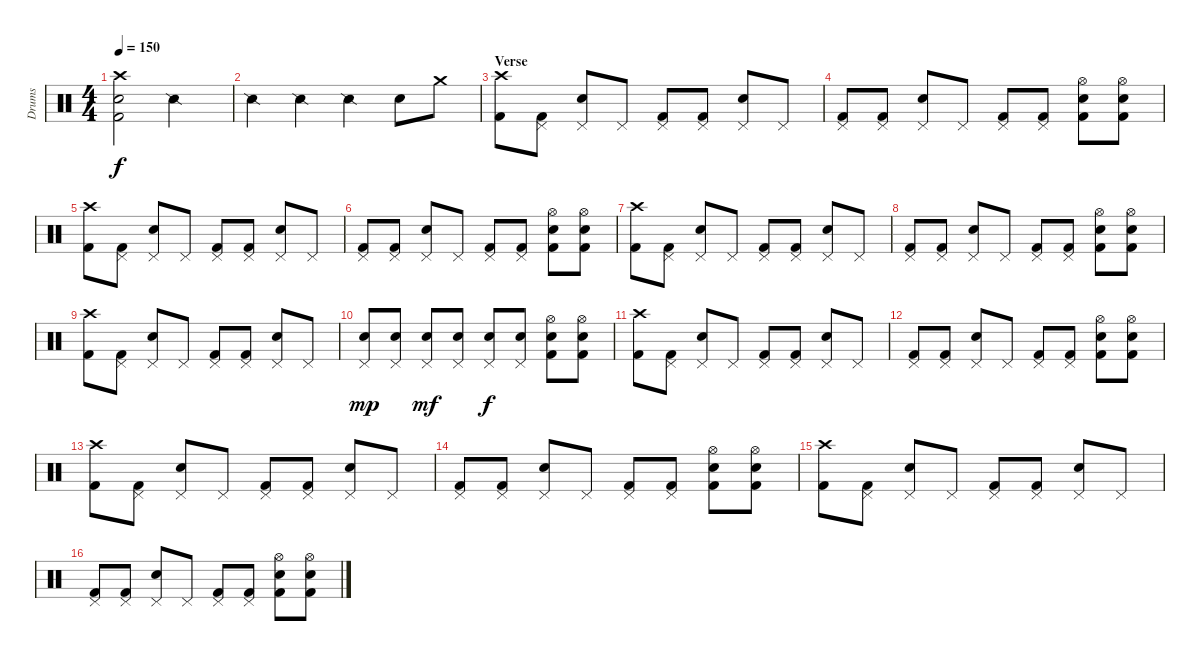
\track ("Drums" "Drums") {instrument percussion}
\staff {score}
\articulation defaults
\ts (4 4)
\tempo 150
\clef neutral
\ks c
("Crash high (hit)" "Snare (hit) 2" "Kick (hit) 2").2{dy f} "Snare (side stick) 2".2 |
"Snare (side stick) 2".4 "Snare (side stick) 2".4 "Snare (side stick) 2".4 "Snare (hit) 2".8 "Crash medium (hit)".8 |
\section ("" "Verse")
("Kick (hit) 2" "Crash high (hit)").8 ("Kick (hit) 2" "Pedal Hi-Hat (hit)").8 ("Snare (hit) 2" "Pedal Hi-Hat (hit)").8 "Pedal Hi-Hat (hit)".8 ("Kick (hit) 2" "Pedal Hi-Hat (hit)").8 ("Kick (hit) 2" "Pedal Hi-Hat (hit)").8 ("Snare (hit) 2" "Pedal Hi-Hat (hit)").8 "Pedal Hi-Hat (hit)".8 |
("Kick (hit) 2" "Pedal Hi-Hat (hit)").8 ("Kick (hit) 2" "Pedal Hi-Hat (hit)").8 ("Snare (hit) 2" "Pedal Hi-Hat (hit)").8 "Pedal Hi-Hat (hit)".8 ("Kick (hit) 2" "Pedal Hi-Hat (hit)").8 ("Kick (hit) 2" "Pedal Hi-Hat (hit)").8 ("Hi-Hat (open)" "Snare (hit) 2" "Kick (hit) 2").8 ("Hi-Hat (open)" "Snare (hit) 2" "Kick (hit) 2").8 |
("Kick (hit) 2" "Crash high (hit)").8 ("Kick (hit) 2" "Pedal Hi-Hat (hit)").8 ("Snare (hit) 2" "Pedal Hi-Hat (hit)").8 "Pedal Hi-Hat (hit)".8 ("Kick (hit) 2" "Pedal Hi-Hat (hit)").8 ("Kick (hit) 2" "Pedal Hi-Hat (hit)").8 ("Snare (hit) 2" "Pedal Hi-Hat (hit)").8 "Pedal Hi-Hat (hit)".8 |
("Kick (hit) 2" "Pedal Hi-Hat (hit)").8 ("Kick (hit) 2" "Pedal Hi-Hat (hit)").8 ("Snare (hit) 2" "Pedal Hi-Hat (hit)").8 "Pedal Hi-Hat (hit)".8 ("Kick (hit) 2" "Pedal Hi-Hat (hit)").8 ("Kick (hit) 2" "Pedal Hi-Hat (hit)").8 ("Hi-Hat (open)" "Snare (hit) 2" "Kick (hit) 2").8 ("Hi-Hat (open)" "Snare (hit) 2" "Kick (hit) 2").8 |
("Kick (hit) 2" "Crash high (hit)").8 ("Kick (hit) 2" "Pedal Hi-Hat (hit)").8 ("Snare (hit) 2" "Pedal Hi-Hat (hit)").8 "Pedal Hi-Hat (hit)".8 ("Kick (hit) 2" "Pedal Hi-Hat (hit)").8 ("Kick (hit) 2" "Pedal Hi-Hat (hit)").8 ("Snare (hit) 2" "Pedal Hi-Hat (hit)").8 "Pedal Hi-Hat (hit)".8 |
("Kick (hit) 2" "Pedal Hi-Hat (hit)").8 ("Kick (hit) 2" "Pedal Hi-Hat (hit)").8 ("Snare (hit) 2" "Pedal Hi-Hat (hit)").8 "Pedal Hi-Hat (hit)".8 ("Kick (hit) 2" "Pedal Hi-Hat (hit)").8 ("Kick (hit) 2" "Pedal Hi-Hat (hit)").8 ("Hi-Hat (open)" "Snare (hit) 2" "Kick (hit) 2").8 ("Hi-Hat (open)" "Snare (hit) 2" "Kick (hit) 2").8 |
("Kick (hit) 2" "Crash high (hit)").8 ("Kick (hit) 2" "Pedal Hi-Hat (hit)").8 ("Snare (hit) 2" "Pedal Hi-Hat (hit)").8 "Pedal Hi-Hat (hit)".8 ("Kick (hit) 2" "Pedal Hi-Hat (hit)").8 ("Kick (hit) 2" "Pedal Hi-Hat (hit)").8 ("Snare (hit) 2" "Pedal Hi-Hat (hit)").8 "Pedal Hi-Hat (hit)".8 |
("Snare (hit) 2" "Pedal Hi-Hat (hit)").8{dy mp} ("Snare (hit) 2" "Pedal Hi-Hat (hit)").8 ("Snare (hit) 2" "Pedal Hi-Hat (hit)").8{dy mf} ("Snare (hit) 2" "Pedal Hi-Hat (hit)").8 ("Snare (hit) 2" "Pedal Hi-Hat (hit)").8{dy f} ("Snare (hit) 2" "Pedal Hi-Hat (hit)").8 ("Snare (hit) 2" "Kick (hit) 2" "Hi-Hat (open)").8 ("Snare (hit) 2" "Kick (hit) 2" "Hi-Hat (open)").8 |
("Kick (hit) 2" "Crash high (hit)").8 ("Kick (hit) 2" "Pedal Hi-Hat (hit)").8 ("Snare (hit) 2" "Pedal Hi-Hat (hit)").8 "Pedal Hi-Hat (hit)".8 ("Kick (hit) 2" "Pedal Hi-Hat (hit)").8 ("Kick (hit) 2" "Pedal Hi-Hat (hit)").8 ("Snare (hit) 2" "Pedal Hi-Hat (hit)").8 "Pedal Hi-Hat (hit)".8 |
("Kick (hit) 2" "Pedal Hi-Hat (hit)").8 ("Kick (hit) 2" "Pedal Hi-Hat (hit)").8 ("Snare (hit) 2" "Pedal Hi-Hat (hit)").8 "Pedal Hi-Hat (hit)".8 ("Kick (hit) 2" "Pedal Hi-Hat (hit)").8 ("Kick (hit) 2" "Pedal Hi-Hat (hit)").8 ("Hi-Hat (open)" "Snare (hit) 2" "Kick (hit) 2").8 ("Hi-Hat (open)" "Snare (hit) 2" "Kick (hit) 2").8 |
("Kick (hit) 2" "Crash high (hit)").8 ("Kick (hit) 2" "Pedal Hi-Hat (hit)").8 ("Snare (hit) 2" "Pedal Hi-Hat (hit)").8 "Pedal Hi-Hat (hit)".8 ("Kick (hit) 2" "Pedal Hi-Hat (hit)").8 ("Kick (hit) 2" "Pedal Hi-Hat (hit)").8 ("Snare (hit) 2" "Pedal Hi-Hat (hit)").8 "Pedal Hi-Hat (hit)".8 |
("Kick (hit) 2" "Pedal Hi-Hat (hit)").8 ("Kick (hit) 2" "Pedal Hi-Hat (hit)").8 ("Snare (hit) 2" "Pedal Hi-Hat (hit)").8 "Pedal Hi-Hat (hit)".8 ("Kick (hit) 2" "Pedal Hi-Hat (hit)").8 ("Kick (hit) 2" "Pedal Hi-Hat (hit)").8 ("Hi-Hat (open)" "Snare (hit) 2" "Kick (hit) 2").8 ("Hi-Hat (open)" "Snare (hit) 2" "Kick (hit) 2").8 |
("Kick (hit) 2" "Crash high (hit)").8 ("Kick (hit) 2" "Pedal Hi-Hat (hit)").8 ("Snare (hit) 2" "Pedal Hi-Hat (hit)").8 "Pedal Hi-Hat (hit)".8 ("Kick (hit) 2" "Pedal Hi-Hat (hit)").8 ("Kick (hit) 2" "Pedal Hi-Hat (hit)").8 ("Snare (hit) 2" "Pedal Hi-Hat (hit)").8 "Pedal Hi-Hat (hit)".8 |
("Kick (hit) 2" "Pedal Hi-Hat (hit)").8 ("Kick (hit) 2" "Pedal Hi-Hat (hit)").8 ("Snare (hit) 2" "Pedal Hi-Hat (hit)").8 "Pedal Hi-Hat (hit)".8 ("Kick (hit) 2" "Pedal Hi-Hat (hit)").8 ("Kick (hit) 2" "Pedal Hi-Hat (hit)").8 ("Hi-Hat (open)" "Snare (hit) 2" "Kick (hit) 2").8 ("Hi-Hat (open)" "Snare (hit) 2" "Kick (hit) 2").8
